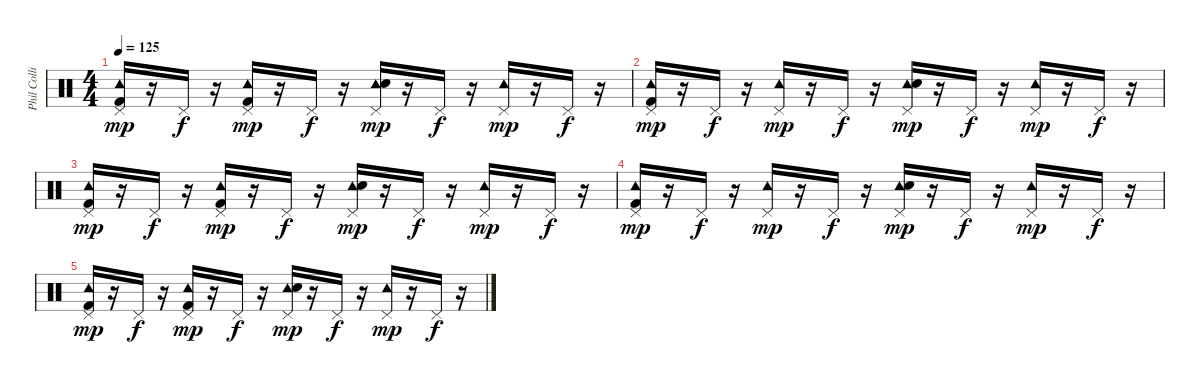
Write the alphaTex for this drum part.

\track ("Phil Collins (drums)" "Phil Colli") {instrument percussion}
\staff {score}
\articulation defaults
\ts (4 4)
\tempo 125
\clef neutral
\ks c
("Tambourine (hit)" "Pedal Hi-Hat (hit)" "Kick (hit) 2").16{dy mp} r.16 "Pedal Hi-Hat (hit)".16{dy f} r.16 ("Tambourine (hit)" "Pedal Hi-Hat (hit)" "Kick (hit) 2").16{dy mp} r.16 "Pedal Hi-Hat (hit)".16{dy f} r.16 ("Tambourine (hit)" "Pedal Hi-Hat (hit)" "Electric Snare (hit)").16{dy mp} r.16 "Pedal Hi-Hat (hit)".16{dy f} r.16 ("Tambourine (hit)" "Pedal Hi-Hat (hit)").16{dy mp} r.16 "Pedal Hi-Hat (hit)".16{dy f} r.16 |
("Tambourine (hit)" "Pedal Hi-Hat (hit)" "Kick (hit) 2").16{dy mp volume 2} r.16 "Pedal Hi-Hat (hit)".16{dy f} r.16 ("Tambourine (hit)" "Pedal Hi-Hat (hit)").16{dy mp} r.16 "Pedal Hi-Hat (hit)".16{dy f} r.16 ("Tambourine (hit)" "Pedal Hi-Hat (hit)" "Electric Snare (hit)").16{dy mp} r.16 "Pedal Hi-Hat (hit)".16{dy f} r.16 ("Tambourine (hit)" "Pedal Hi-Hat (hit)").16{dy mp} r.16 "Pedal Hi-Hat (hit)".16{dy f} r.16 |
("Tambourine (hit)" "Pedal Hi-Hat (hit)" "Kick (hit) 2").16{dy mp} r.16 "Pedal Hi-Hat (hit)".16{dy f} r.16 ("Tambourine (hit)" "Pedal Hi-Hat (hit)" "Kick (hit) 2").16{dy mp} r.16 "Pedal Hi-Hat (hit)".16{dy f} r.16 ("Tambourine (hit)" "Pedal Hi-Hat (hit)" "Electric Snare (hit)").16{dy mp} r.16 "Pedal Hi-Hat (hit)".16{dy f} r.16 ("Tambourine (hit)" "Pedal Hi-Hat (hit)").16{dy mp} r.16 "Pedal Hi-Hat (hit)".16{dy f} r.16 |
("Tambourine (hit)" "Pedal Hi-Hat (hit)" "Kick (hit) 2").16{dy mp volume 0} r.16 "Pedal Hi-Hat (hit)".16{dy f} r.16 ("Tambourine (hit)" "Pedal Hi-Hat (hit)").16{dy mp} r.16 "Pedal Hi-Hat (hit)".16{dy f} r.16 ("Tambourine (hit)" "Pedal Hi-Hat (hit)" "Electric Snare (hit)").16{dy mp} r.16 "Pedal Hi-Hat (hit)".16{dy f} r.16 ("Tambourine (hit)" "Pedal Hi-Hat (hit)").16{dy mp} r.16 "Pedal Hi-Hat (hit)".16{dy f} r.16 |
("Tambourine (hit)" "Pedal Hi-Hat (hit)" "Kick (hit) 2").16{dy mp} r.16 "Pedal Hi-Hat (hit)".16{dy f} r.16 ("Tambourine (hit)" "Pedal Hi-Hat (hit)" "Kick (hit) 2").16{dy mp} r.16 "Pedal Hi-Hat (hit)".16{dy f} r.16 ("Tambourine (hit)" "Pedal Hi-Hat (hit)" "Electric Snare (hit)").16{dy mp} r.16 "Pedal Hi-Hat (hit)".16{dy f} r.16 ("Tambourine (hit)" "Pedal Hi-Hat (hit)").16{dy mp} r.16 "Pedal Hi-Hat (hit)".16{dy f} r.16
